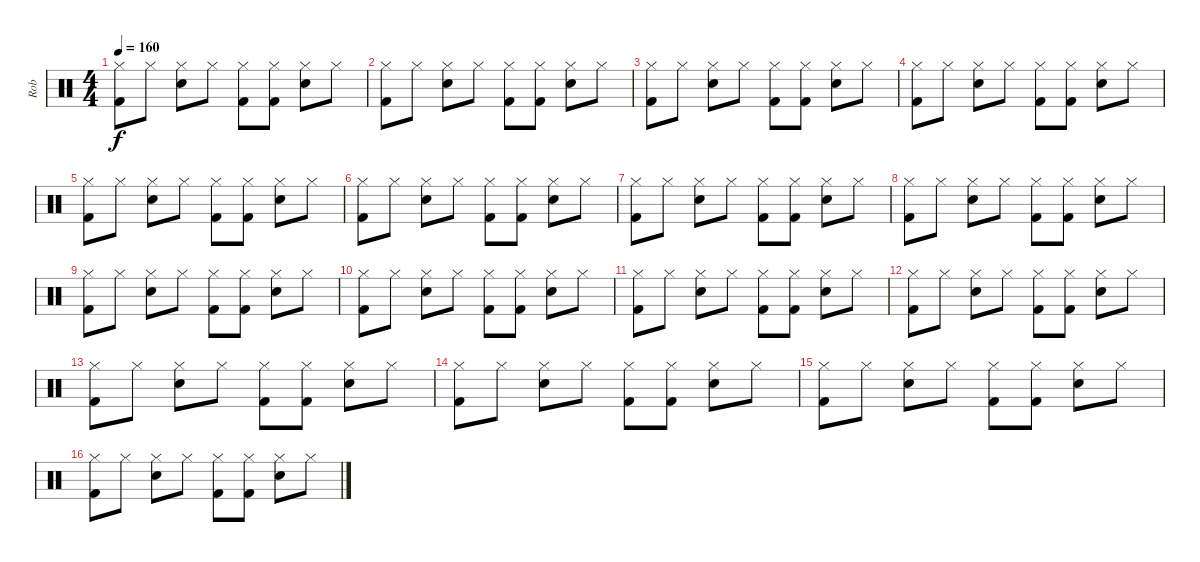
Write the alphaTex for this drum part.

\track ("Rob" "Rob") {instrument percussion}
\staff {score}
\articulation defaults
\ts (4 4)
\tempo 160
\clef neutral
\ks c
("Hi-Hat (closed)" "Kick (hit) 2").8{dy f} "Hi-Hat (closed)".8 ("Hi-Hat (closed)" "Electric Snare (hit)").8 "Hi-Hat (closed)".8 ("Hi-Hat (closed)" "Kick (hit) 2").8 ("Hi-Hat (closed)" "Kick (hit) 2").8 ("Hi-Hat (closed)" "Electric Snare (hit)").8 "Hi-Hat (closed)".8 |
("Hi-Hat (closed)" "Kick (hit) 2").8 "Hi-Hat (closed)".8 ("Hi-Hat (closed)" "Electric Snare (hit)").8 "Hi-Hat (closed)".8 ("Hi-Hat (closed)" "Kick (hit) 2").8 ("Hi-Hat (closed)" "Kick (hit) 2").8 ("Hi-Hat (closed)" "Electric Snare (hit)").8 "Hi-Hat (closed)".8 |
("Hi-Hat (closed)" "Kick (hit) 2").8 "Hi-Hat (closed)".8 ("Hi-Hat (closed)" "Electric Snare (hit)").8 "Hi-Hat (closed)".8 ("Hi-Hat (closed)" "Kick (hit) 2").8 ("Hi-Hat (closed)" "Kick (hit) 2").8 ("Hi-Hat (closed)" "Electric Snare (hit)").8 "Hi-Hat (closed)".8 |
("Hi-Hat (closed)" "Kick (hit) 2").8 "Hi-Hat (closed)".8 ("Hi-Hat (closed)" "Electric Snare (hit)").8 "Hi-Hat (closed)".8 ("Hi-Hat (closed)" "Kick (hit) 2").8 ("Hi-Hat (closed)" "Kick (hit) 2").8 ("Hi-Hat (closed)" "Electric Snare (hit)").8 "Hi-Hat (closed)".8 |
("Hi-Hat (closed)" "Kick (hit) 2").8 "Hi-Hat (closed)".8 ("Hi-Hat (closed)" "Electric Snare (hit)").8 "Hi-Hat (closed)".8 ("Hi-Hat (closed)" "Kick (hit) 2").8 ("Hi-Hat (closed)" "Kick (hit) 2").8 ("Hi-Hat (closed)" "Electric Snare (hit)").8 "Hi-Hat (closed)".8 |
("Hi-Hat (closed)" "Kick (hit) 2").8 "Hi-Hat (closed)".8 ("Hi-Hat (closed)" "Electric Snare (hit)").8 "Hi-Hat (closed)".8 ("Hi-Hat (closed)" "Kick (hit) 2").8 ("Hi-Hat (closed)" "Kick (hit) 2").8 ("Hi-Hat (closed)" "Electric Snare (hit)").8 "Hi-Hat (closed)".8 |
("Hi-Hat (closed)" "Kick (hit) 2").8 "Hi-Hat (closed)".8 ("Hi-Hat (closed)" "Electric Snare (hit)").8 "Hi-Hat (closed)".8 ("Hi-Hat (closed)" "Kick (hit) 2").8 ("Hi-Hat (closed)" "Kick (hit) 2").8 ("Hi-Hat (closed)" "Electric Snare (hit)").8 "Hi-Hat (closed)".8 |
("Hi-Hat (closed)" "Kick (hit) 2").8 "Hi-Hat (closed)".8 ("Hi-Hat (closed)" "Electric Snare (hit)").8 "Hi-Hat (closed)".8 ("Hi-Hat (closed)" "Kick (hit) 2").8 ("Hi-Hat (closed)" "Kick (hit) 2").8 ("Hi-Hat (closed)" "Electric Snare (hit)").8 "Hi-Hat (closed)".8 |
("Hi-Hat (closed)" "Kick (hit) 2").8 "Hi-Hat (closed)".8 ("Hi-Hat (closed)" "Electric Snare (hit)").8 "Hi-Hat (closed)".8 ("Hi-Hat (closed)" "Kick (hit) 2").8 ("Hi-Hat (closed)" "Kick (hit) 2").8 ("Hi-Hat (closed)" "Electric Snare (hit)").8 "Hi-Hat (closed)".8 |
("Hi-Hat (closed)" "Kick (hit) 2").8 "Hi-Hat (closed)".8 ("Hi-Hat (closed)" "Electric Snare (hit)").8 "Hi-Hat (closed)".8 ("Hi-Hat (closed)" "Kick (hit) 2").8 ("Hi-Hat (closed)" "Kick (hit) 2").8 ("Hi-Hat (closed)" "Electric Snare (hit)").8 "Hi-Hat (closed)".8 |
("Hi-Hat (closed)" "Kick (hit) 2").8 "Hi-Hat (closed)".8 ("Hi-Hat (closed)" "Electric Snare (hit)").8 "Hi-Hat (closed)".8 ("Hi-Hat (closed)" "Kick (hit) 2").8 ("Hi-Hat (closed)" "Kick (hit) 2").8 ("Hi-Hat (closed)" "Electric Snare (hit)").8 "Hi-Hat (closed)".8 |
("Hi-Hat (closed)" "Kick (hit) 2").8 "Hi-Hat (closed)".8 ("Hi-Hat (closed)" "Electric Snare (hit)").8 "Hi-Hat (closed)".8 ("Hi-Hat (closed)" "Kick (hit) 2").8 ("Hi-Hat (closed)" "Kick (hit) 2").8 ("Hi-Hat (closed)" "Electric Snare (hit)").8 "Hi-Hat (closed)".8 |
("Hi-Hat (closed)" "Kick (hit) 2").8 "Hi-Hat (closed)".8 ("Hi-Hat (closed)" "Electric Snare (hit)").8 "Hi-Hat (closed)".8 ("Hi-Hat (closed)" "Kick (hit) 2").8 ("Hi-Hat (closed)" "Kick (hit) 2").8 ("Hi-Hat (closed)" "Electric Snare (hit)").8 "Hi-Hat (closed)".8 |
("Hi-Hat (closed)" "Kick (hit) 2").8 "Hi-Hat (closed)".8 ("Hi-Hat (closed)" "Electric Snare (hit)").8 "Hi-Hat (closed)".8 ("Hi-Hat (closed)" "Kick (hit) 2").8 ("Hi-Hat (closed)" "Kick (hit) 2").8 ("Hi-Hat (closed)" "Electric Snare (hit)").8 "Hi-Hat (closed)".8 |
("Hi-Hat (closed)" "Kick (hit) 2").8 "Hi-Hat (closed)".8 ("Hi-Hat (closed)" "Electric Snare (hit)").8 "Hi-Hat (closed)".8 ("Hi-Hat (closed)" "Kick (hit) 2").8 ("Hi-Hat (closed)" "Kick (hit) 2").8 ("Hi-Hat (closed)" "Electric Snare (hit)").8 "Hi-Hat (closed)".8 |
("Hi-Hat (closed)" "Kick (hit) 2").8 "Hi-Hat (closed)".8 ("Hi-Hat (closed)" "Electric Snare (hit)").8 "Hi-Hat (closed)".8 ("Hi-Hat (closed)" "Kick (hit) 2").8 ("Hi-Hat (closed)" "Kick (hit) 2").8 ("Hi-Hat (closed)" "Electric Snare (hit)").8 "Hi-Hat (closed)".8
